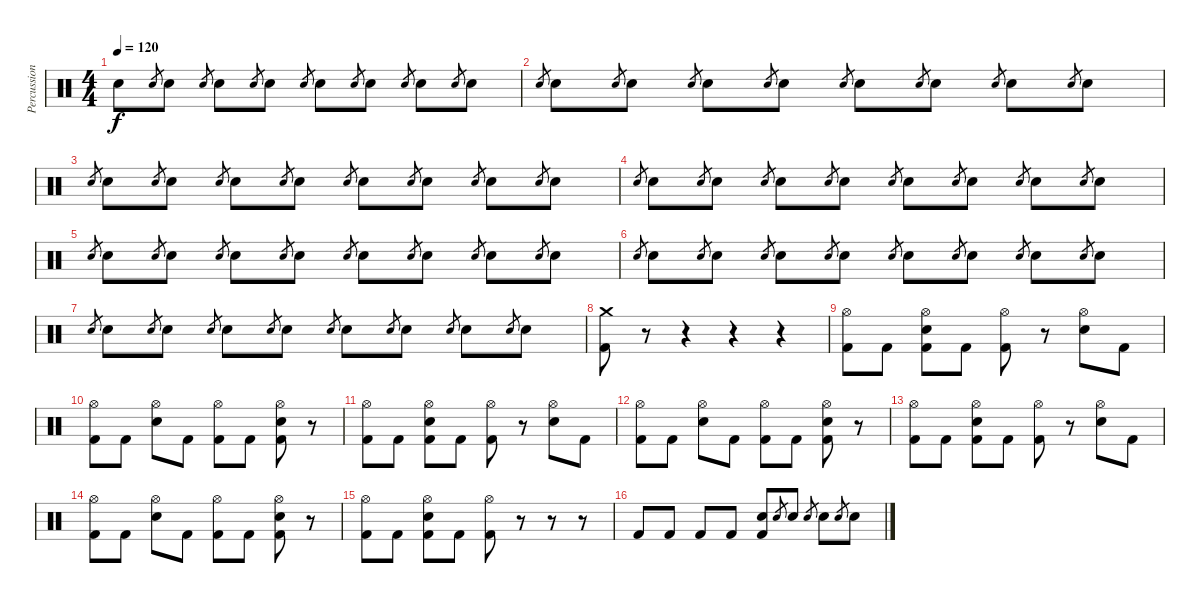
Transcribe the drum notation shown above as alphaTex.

\track ("Percussion" "Percussion") {solo instrument percussion}
\staff {score}
\articulation defaults
\ts (4 4)
\tempo 120
\clef neutral
\ks c "Snare (hit) 2".8{dy f} "Snare (hit) 2".8{gr} "Snare (hit) 2".8 "Snare (hit) 2".8{gr} "Snare (hit) 2".8 "Snare (hit) 2".8{gr} "Snare (hit) 2".8 "Snare (hit) 2".8{gr} "Snare (hit) 2".8 "Snare (hit) 2".8{gr} "Snare (hit) 2".8 "Snare (hit) 2".8{gr} "Snare (hit) 2".8 "Snare (hit) 2".8{gr} "Snare (hit) 2".8
|
"Snare (hit) 2".8{gr} "Snare (hit) 2".8 "Snare (hit) 2".8{gr} "Snare (hit) 2".8 "Snare (hit) 2".8{gr} "Snare (hit) 2".8 "Snare (hit) 2".8{gr} "Snare (hit) 2".8 "Snare (hit) 2".8{gr} "Snare (hit) 2".8 "Snare (hit) 2".8{gr} "Snare (hit) 2".8 "Snare (hit) 2".8{gr} "Snare (hit) 2".8 "Snare (hit) 2".8{gr} "Snare (hit) 2".8 |
"Snare (hit) 2".8{gr} "Snare (hit) 2".8 "Snare (hit) 2".8{gr} "Snare (hit) 2".8 "Snare (hit) 2".8{gr} "Snare (hit) 2".8 "Snare (hit) 2".8{gr} "Snare (hit) 2".8 "Snare (hit) 2".8{gr} "Snare (hit) 2".8 "Snare (hit) 2".8{gr} "Snare (hit) 2".8 "Snare (hit) 2".8{gr} "Snare (hit) 2".8 "Snare (hit) 2".8{gr} "Snare (hit) 2".8 |
"Snare (hit) 2".8{gr} "Snare (hit) 2".8 "Snare (hit) 2".8{gr} "Snare (hit) 2".8 "Snare (hit) 2".8{gr} "Snare (hit) 2".8 "Snare (hit) 2".8{gr} "Snare (hit) 2".8 "Snare (hit) 2".8{gr} "Snare (hit) 2".8 "Snare (hit) 2".8{gr} "Snare (hit) 2".8 "Snare (hit) 2".8{gr} "Snare (hit) 2".8 "Snare (hit) 2".8{gr} "Snare (hit) 2".8 |
"Snare (hit) 2".8{gr} "Snare (hit) 2".8 "Snare (hit) 2".8{gr} "Snare (hit) 2".8 "Snare (hit) 2".8{gr} "Snare (hit) 2".8 "Snare (hit) 2".8{gr} "Snare (hit) 2".8 "Snare (hit) 2".8{gr} "Snare (hit) 2".8 "Snare (hit) 2".8{gr} "Snare (hit) 2".8 "Snare (hit) 2".8{gr} "Snare (hit) 2".8 "Snare (hit) 2".8{gr} "Snare (hit) 2".8 |
"Snare (hit) 2".8{gr} "Snare (hit) 2".8 "Snare (hit) 2".8{gr} "Snare (hit) 2".8 "Snare (hit) 2".8{gr} "Snare (hit) 2".8 "Snare (hit) 2".8{gr} "Snare (hit) 2".8 "Snare (hit) 2".8{gr} "Snare (hit) 2".8 "Snare (hit) 2".8{gr} "Snare (hit) 2".8 "Snare (hit) 2".8{gr} "Snare (hit) 2".8 "Snare (hit) 2".8{gr} "Snare (hit) 2".8 |
"Snare (hit) 2".8{gr} "Snare (hit) 2".8 "Snare (hit) 2".8{gr} "Snare (hit) 2".8 "Snare (hit) 2".8{gr} "Snare (hit) 2".8 "Snare (hit) 2".8{gr} "Snare (hit) 2".8 "Snare (hit) 2".8{gr} "Snare (hit) 2".8 "Snare (hit) 2".8{gr} "Snare (hit) 2".8 "Snare (hit) 2".8{gr} "Snare (hit) 2".8 "Snare (hit) 2".8{gr} "Snare (hit) 2".8 |
("Crash medium (hit)" "Kick (hit) 2").8 r.8 r.4 r.4 r.4 |
("Hi-Hat (open)" "Kick (hit) 2").8 "Kick (hit) 2".8 ("Hi-Hat (open)" "Snare (hit) 2" "Kick (hit) 2").8 "Kick (hit) 2".8 ("Hi-Hat (open)" "Kick (hit) 2").8 r.8 ("Hi-Hat (open)" "Snare (hit) 2").8 "Kick (hit) 2".8 |
("Hi-Hat (open)" "Kick (hit) 2").8 "Kick (hit) 2".8 ("Hi-Hat (open)" "Snare (hit) 2").8 "Kick (hit) 2".8 ("Hi-Hat (open)" "Kick (hit) 2").8 "Kick (hit) 2".8 ("Hi-Hat (open)" "Snare (hit) 2" "Kick (hit) 2").8 r.8 |
("Hi-Hat (open)" "Kick (hit) 2").8 "Kick (hit) 2".8 ("Hi-Hat (open)" "Snare (hit) 2" "Kick (hit) 2").8 "Kick (hit) 2".8 ("Hi-Hat (open)" "Kick (hit) 2").8 r.8 ("Hi-Hat (open)" "Snare (hit) 2").8 "Kick (hit) 2".8 |
("Hi-Hat (open)" "Kick (hit) 2").8 "Kick (hit) 2".8 ("Hi-Hat (open)" "Snare (hit) 2").8 "Kick (hit) 2".8 ("Hi-Hat (open)" "Kick (hit) 2").8 "Kick (hit) 2".8 ("Hi-Hat (open)" "Snare (hit) 2" "Kick (hit) 2").8 r.8 |
("Hi-Hat (open)" "Kick (hit) 2").8 "Kick (hit) 2".8 ("Hi-Hat (open)" "Snare (hit) 2" "Kick (hit) 2").8 "Kick (hit) 2".8 ("Hi-Hat (open)" "Kick (hit) 2").8 r.8 ("Hi-Hat (open)" "Snare (hit) 2").8 "Kick (hit) 2".8 |
("Hi-Hat (open)" "Kick (hit) 2").8 "Kick (hit) 2".8 ("Hi-Hat (open)" "Snare (hit) 2").8 "Kick (hit) 2".8 ("Hi-Hat (open)" "Kick (hit) 2").8 "Kick (hit) 2".8 ("Hi-Hat (open)" "Snare (hit) 2" "Kick (hit) 2").8 r.8 |
("Hi-Hat (open)" "Kick (hit) 2").8 "Kick (hit) 2".8 ("Hi-Hat (open)" "Snare (hit) 2" "Kick (hit) 2").8 "Kick (hit) 2".8 ("Hi-Hat (open)" "Kick (hit) 2").8 r.8 r.8 r.8 |
"Kick (hit) 2".8 "Kick (hit) 2".8 "Kick (hit) 2".8 "Kick (hit) 2".8 ("Snare (hit) 2" "Kick (hit) 2").8 "Snare (hit) 2".8{gr} "Snare (hit) 2".8 "Snare (hit) 2".8{gr} "Snare (hit) 2".8 "Snare (hit) 2".8{gr} "Snare (hit) 2".8
